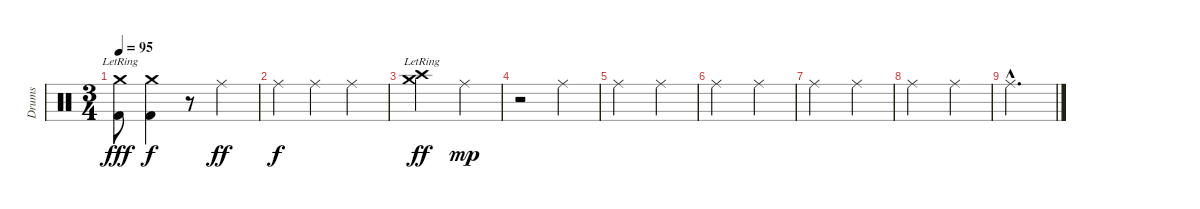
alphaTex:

\track ("Drums" "Drums") {instrument percussion}
\staff {score}
\articulation defaults
\ts (3 4)
\tempo 95
\clef neutral
\ks c
("Crash medium (hit)"{lr} "Kick (hit) 2").8{dy fff} ("Crash medium (hit)" "Kick (hit) 2").4{dy f} r.8 "Ride (middle)".4{dy ff} |
"Ride (middle)".4{dy f} "Ride (middle)".4 "Ride (middle)".4 |
("Crash medium (hit)"{lr} "Crash high (hit)").2{dy ff} "Ride (middle)".4{dy mp} |
r.2 "Ride (middle)".4 |
"Ride (middle)".2 "Ride (middle)".4 |
"Ride (middle)".2 "Ride (middle)".4 |
"Ride (middle)".2 "Ride (middle)".4 |
"Ride (middle)".2 "Ride (middle)".4 |
"Ride (middle)"{hac}.2{d}
